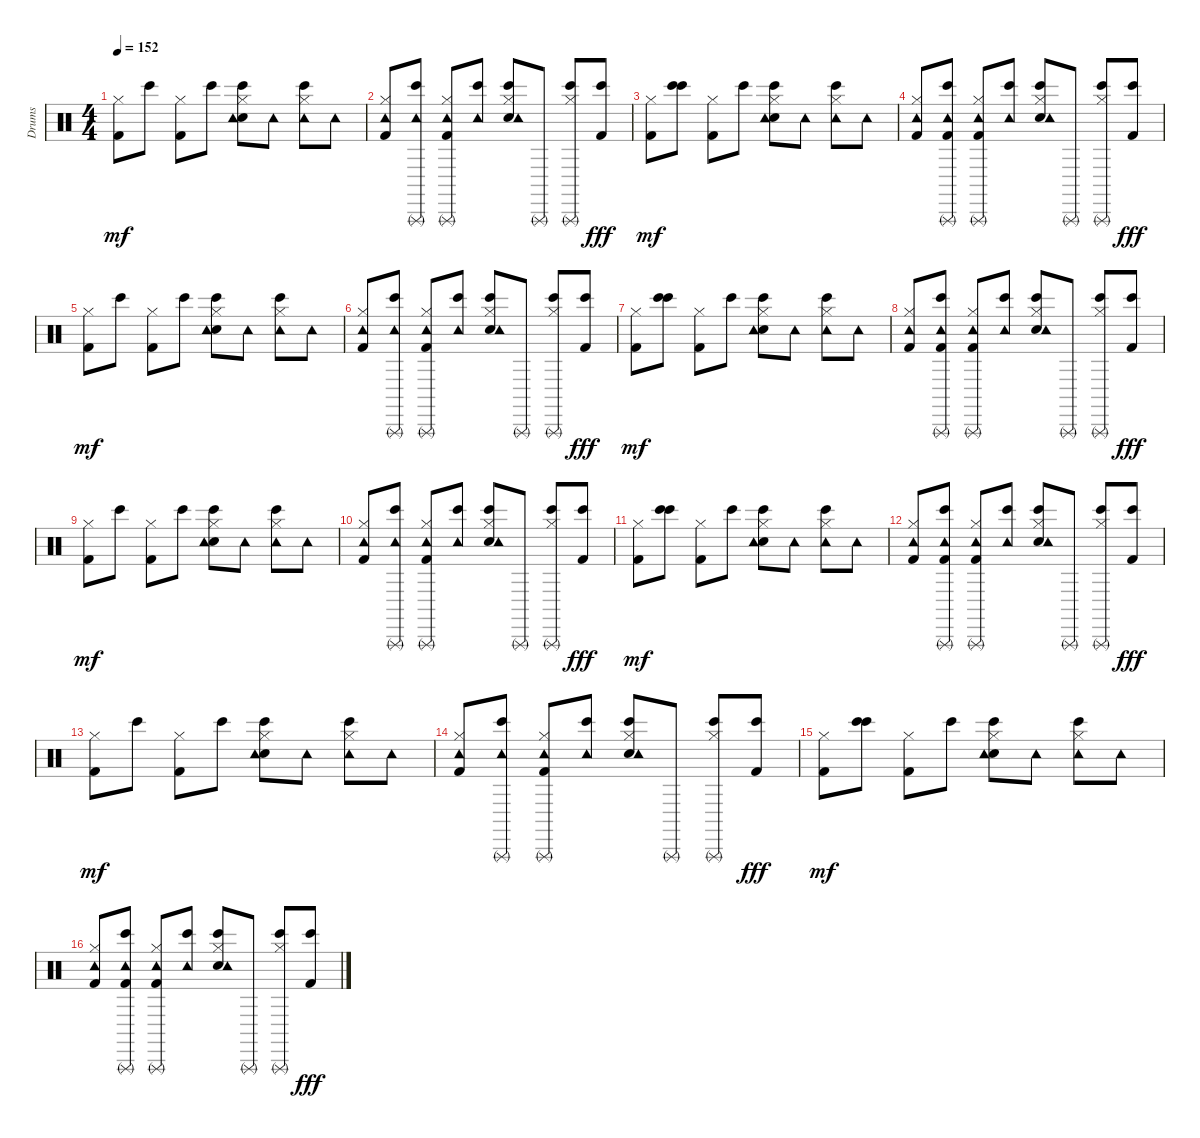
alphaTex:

\track ("Drums" "Drums") {instrument percussion}
\staff {score}
\articulation defaults
\ts (4 4)
\tempo 152
\clef neutral
\ks c
("Kick (hit) 2" "Hi-Hat (closed)").8{dy mf} "Bongo High (hit)".8 ("Kick (hit) 2" "Hi-Hat (closed)").8 "Bongo High (hit)".8 ("Bongo High (hit)" "Electric Snare (hit)" "Hi-Hat (closed)" "Tambourine (hit)").8 "Tambourine (hit)".8 ("Tambourine (hit)" "Bongo High (hit)" "Hi-Hat (closed)").8 "Tambourine (hit)".8 |
("Tambourine (hit)" "Kick (hit) 2" "Hi-Hat (closed)").8 ("Tambourine (hit)" "Bongo High (hit)" "Triangle (rnute)").8 ("Kick (hit) 2" "Hi-Hat (closed)" "Triangle (rnute)" "Tambourine (hit)").8 ("Tambourine (hit)" "Bongo High (hit)").8 ("Bongo High (hit)" "Electric Snare (hit)" "Hi-Hat (closed)" "Tambourine (hit)").8 "Triangle (rnute)".8 ("Bongo High (hit)" "Hi-Hat (closed)" "Triangle (rnute)").8 ("Bongo High (hit)" "Kick (hit) 2").8{dy fff} |
("Kick (hit) 2" "Hi-Hat (closed)").8{dy mf} ("Bongo High (hit)" "Bongo High (hit)").8 ("Kick (hit) 2" "Hi-Hat (closed)").8 "Bongo High (hit)".8 ("Bongo High (hit)" "Electric Snare (hit)" "Hi-Hat (closed)" "Tambourine (hit)").8 "Tambourine (hit)".8 ("Tambourine (hit)" "Bongo High (hit)" "Hi-Hat (closed)").8 "Tambourine (hit)".8 |
("Tambourine (hit)" "Kick (hit) 2" "Hi-Hat (closed)").8 ("Tambourine (hit)" "Bongo High (hit)" "Kick (hit) 2" "Triangle (rnute)").8 ("Kick (hit) 2" "Hi-Hat (closed)" "Triangle (rnute)" "Tambourine (hit)").8 ("Tambourine (hit)" "Bongo High (hit)").8 ("Bongo High (hit)" "Electric Snare (hit)" "Hi-Hat (closed)" "Tambourine (hit)").8 "Triangle (rnute)".8 ("Bongo High (hit)" "Hi-Hat (closed)" "Triangle (rnute)").8 ("Bongo High (hit)" "Kick (hit) 2").8{dy fff} |
("Kick (hit) 2" "Hi-Hat (closed)").8{dy mf} "Bongo High (hit)".8 ("Kick (hit) 2" "Hi-Hat (closed)").8 "Bongo High (hit)".8 ("Bongo High (hit)" "Electric Snare (hit)" "Hi-Hat (closed)" "Tambourine (hit)").8 "Tambourine (hit)".8 ("Tambourine (hit)" "Bongo High (hit)" "Hi-Hat (closed)").8 "Tambourine (hit)".8 |
("Tambourine (hit)" "Kick (hit) 2" "Hi-Hat (closed)").8 ("Tambourine (hit)" "Bongo High (hit)" "Triangle (rnute)").8 ("Kick (hit) 2" "Hi-Hat (closed)" "Triangle (rnute)" "Tambourine (hit)").8 ("Tambourine (hit)" "Bongo High (hit)").8 ("Bongo High (hit)" "Electric Snare (hit)" "Hi-Hat (closed)" "Tambourine (hit)").8 "Triangle (rnute)".8 ("Bongo High (hit)" "Hi-Hat (closed)" "Triangle (rnute)").8 ("Bongo High (hit)" "Kick (hit) 2").8{dy fff} |
("Kick (hit) 2" "Hi-Hat (closed)").8{dy mf} ("Bongo High (hit)" "Bongo High (hit)").8 ("Kick (hit) 2" "Hi-Hat (closed)").8 "Bongo High (hit)".8 ("Bongo High (hit)" "Electric Snare (hit)" "Hi-Hat (closed)" "Tambourine (hit)").8 "Tambourine (hit)".8 ("Tambourine (hit)" "Bongo High (hit)" "Hi-Hat (closed)").8 "Tambourine (hit)".8 |
("Tambourine (hit)" "Kick (hit) 2" "Hi-Hat (closed)").8 ("Tambourine (hit)" "Bongo High (hit)" "Kick (hit) 2" "Triangle (rnute)").8 ("Kick (hit) 2" "Hi-Hat (closed)" "Triangle (rnute)" "Tambourine (hit)").8 ("Tambourine (hit)" "Bongo High (hit)").8 ("Bongo High (hit)" "Electric Snare (hit)" "Hi-Hat (closed)" "Tambourine (hit)").8 "Triangle (rnute)".8 ("Bongo High (hit)" "Hi-Hat (closed)" "Triangle (rnute)").8 ("Bongo High (hit)" "Kick (hit) 2").8{dy fff} |
("Kick (hit) 2" "Hi-Hat (closed)").8{dy mf} "Bongo High (hit)".8 ("Kick (hit) 2" "Hi-Hat (closed)").8 "Bongo High (hit)".8 ("Bongo High (hit)" "Electric Snare (hit)" "Hi-Hat (closed)" "Tambourine (hit)").8 "Tambourine (hit)".8 ("Tambourine (hit)" "Bongo High (hit)" "Hi-Hat (closed)").8 "Tambourine (hit)".8 |
("Tambourine (hit)" "Kick (hit) 2" "Hi-Hat (closed)").8 ("Tambourine (hit)" "Bongo High (hit)" "Triangle (rnute)").8 ("Kick (hit) 2" "Hi-Hat (closed)" "Triangle (rnute)" "Tambourine (hit)").8 ("Tambourine (hit)" "Bongo High (hit)").8 ("Bongo High (hit)" "Electric Snare (hit)" "Hi-Hat (closed)" "Tambourine (hit)").8 "Triangle (rnute)".8 ("Bongo High (hit)" "Hi-Hat (closed)" "Triangle (rnute)").8 ("Bongo High (hit)" "Kick (hit) 2").8{dy fff} |
("Kick (hit) 2" "Hi-Hat (closed)").8{dy mf} ("Bongo High (hit)" "Bongo High (hit)").8 ("Kick (hit) 2" "Hi-Hat (closed)").8 "Bongo High (hit)".8 ("Bongo High (hit)" "Electric Snare (hit)" "Hi-Hat (closed)" "Tambourine (hit)").8 "Tambourine (hit)".8 ("Tambourine (hit)" "Bongo High (hit)" "Hi-Hat (closed)").8 "Tambourine (hit)".8 |
("Tambourine (hit)" "Kick (hit) 2" "Hi-Hat (closed)").8 ("Tambourine (hit)" "Bongo High (hit)" "Kick (hit) 2" "Triangle (rnute)").8 ("Kick (hit) 2" "Hi-Hat (closed)" "Triangle (rnute)" "Tambourine (hit)").8 ("Tambourine (hit)" "Bongo High (hit)").8 ("Bongo High (hit)" "Electric Snare (hit)" "Hi-Hat (closed)" "Tambourine (hit)").8 "Triangle (rnute)".8 ("Bongo High (hit)" "Hi-Hat (closed)" "Triangle (rnute)").8 ("Bongo High (hit)" "Kick (hit) 2").8{dy fff} |
("Kick (hit) 2" "Hi-Hat (closed)").8{dy mf} "Bongo High (hit)".8 ("Kick (hit) 2" "Hi-Hat (closed)").8 "Bongo High (hit)".8 ("Bongo High (hit)" "Electric Snare (hit)" "Hi-Hat (closed)" "Tambourine (hit)").8 "Tambourine (hit)".8 ("Tambourine (hit)" "Bongo High (hit)" "Hi-Hat (closed)").8 "Tambourine (hit)".8 |
("Tambourine (hit)" "Kick (hit) 2" "Hi-Hat (closed)").8 ("Tambourine (hit)" "Bongo High (hit)" "Triangle (rnute)").8 ("Kick (hit) 2" "Hi-Hat (closed)" "Triangle (rnute)" "Tambourine (hit)").8 ("Tambourine (hit)" "Bongo High (hit)").8 ("Bongo High (hit)" "Electric Snare (hit)" "Hi-Hat (closed)" "Tambourine (hit)").8 "Triangle (rnute)".8 ("Bongo High (hit)" "Hi-Hat (closed)" "Triangle (rnute)").8 ("Bongo High (hit)" "Kick (hit) 2").8{dy fff} |
("Kick (hit) 2" "Hi-Hat (closed)").8{dy mf} ("Bongo High (hit)" "Bongo High (hit)").8 ("Kick (hit) 2" "Hi-Hat (closed)").8 "Bongo High (hit)".8 ("Bongo High (hit)" "Electric Snare (hit)" "Hi-Hat (closed)" "Tambourine (hit)").8 "Tambourine (hit)".8 ("Tambourine (hit)" "Bongo High (hit)" "Hi-Hat (closed)").8 "Tambourine (hit)".8 |
("Tambourine (hit)" "Kick (hit) 2" "Hi-Hat (closed)").8 ("Tambourine (hit)" "Bongo High (hit)" "Kick (hit) 2" "Triangle (rnute)").8 ("Kick (hit) 2" "Hi-Hat (closed)" "Triangle (rnute)" "Tambourine (hit)").8 ("Tambourine (hit)" "Bongo High (hit)").8 ("Bongo High (hit)" "Electric Snare (hit)" "Hi-Hat (closed)" "Tambourine (hit)").8 "Triangle (rnute)".8 ("Bongo High (hit)" "Hi-Hat (closed)" "Triangle (rnute)").8 ("Bongo High (hit)" "Kick (hit) 2").8{dy fff}
